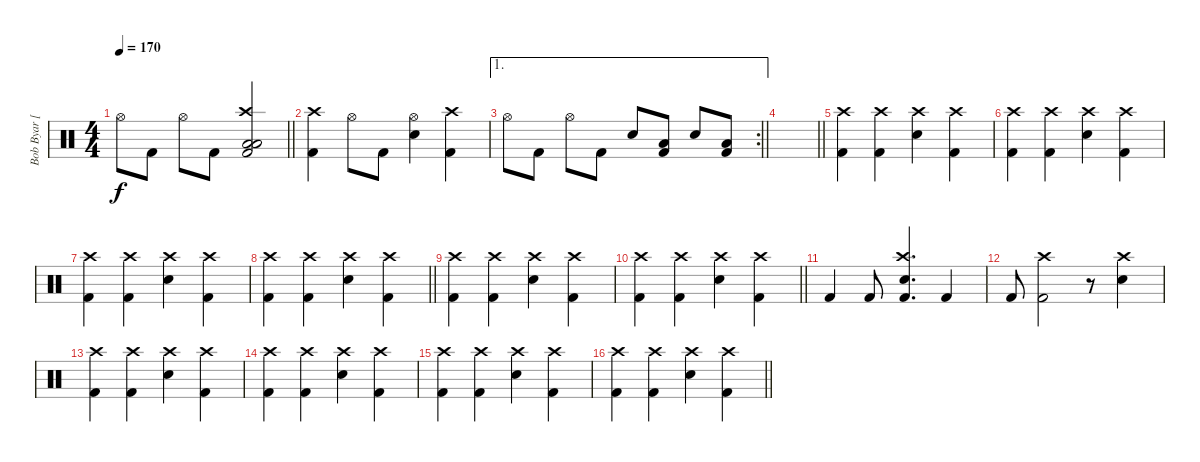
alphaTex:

\track ("Bob Byar [Drums]" "Bob Byar [") {instrument percussion}
\staff {score}
\articulation defaults
\ts (4 4)
\tempo 170
\clef neutral
\barLineRight lightlight
\ks c "Hi-Hat (open)".8{dy f} "Kick (hit) 2".8 "Hi-Hat (open)".8 "Kick (hit) 2".8
("Crash high (hit)" "Low Tom (hit)" "Low Tom (hit)" "Kick (hit) 2").2 |
("Crash high (hit)" "Kick (hit) 2").4 "Hi-Hat (open)".8 "Kick (hit) 2".8 ("Hi-Hat (open)" "Electric Snare (hit)").4 ("Crash high (hit)" "Kick (hit) 2").4 |
\ae 1
\rc 2
\barLineRight lightlight "Hi-Hat (open)".8 "Kick (hit) 2".8 "Hi-Hat (open)".8 "Kick (hit) 2".8 "Electric Snare (hit)".8
("Low Tom (hit)" "Kick (hit) 2").8 "Electric Snare (hit)".8 ("Low Tom (hit)" "Kick (hit) 2").8 |
\barLineRight lightlight
|
("Crash high (hit)" "Kick (hit) 2").4 ("Crash high (hit)" "Kick (hit) 2").4 ("Crash high (hit)" "Electric Snare (hit)").4 ("Crash high (hit)" "Kick (hit) 2").4 |
("Crash high (hit)" "Kick (hit) 2").4 ("Crash high (hit)" "Kick (hit) 2").4 ("Crash high (hit)" "Electric Snare (hit)").4 ("Crash high (hit)" "Kick (hit) 2").4 |
("Crash high (hit)" "Kick (hit) 2").4 ("Crash high (hit)" "Kick (hit) 2").4 ("Crash high (hit)" "Electric Snare (hit)").4 ("Crash high (hit)" "Kick (hit) 2").4 |
\barLineRight lightlight
("Crash high (hit)" "Kick (hit) 2").4 ("Crash high (hit)" "Kick (hit) 2").4 ("Crash high (hit)" "Electric Snare (hit)").4 ("Crash high (hit)" "Kick (hit) 2").4 |
("Crash high (hit)" "Kick (hit) 2").4 ("Crash high (hit)" "Kick (hit) 2").4 ("Crash high (hit)" "Electric Snare (hit)").4 ("Crash high (hit)" "Kick (hit) 2").4 |
\barLineRight lightlight
("Crash high (hit)" "Kick (hit) 2").4 ("Crash high (hit)" "Kick (hit) 2").4 ("Crash high (hit)" "Electric Snare (hit)").4 ("Crash high (hit)" "Kick (hit) 2").4 |
"Kick (hit) 2".4 "Kick (hit) 2".8 ("Crash high (hit)" "Electric Snare (hit)" "Kick (hit) 2").4{d} "Kick (hit) 2".4 |
"Kick (hit) 2".8 ("Crash high (hit)" "Kick (hit) 2").2 r.8 ("Crash high (hit)" "Electric Snare (hit)").4 |
("Crash high (hit)" "Kick (hit) 2").4 ("Crash high (hit)" "Kick (hit) 2").4 ("Crash high (hit)" "Electric Snare (hit)").4 ("Crash high (hit)" "Kick (hit) 2").4 |
("Crash high (hit)" "Kick (hit) 2").4 ("Crash high (hit)" "Kick (hit) 2").4 ("Crash high (hit)" "Electric Snare (hit)").4 ("Crash high (hit)" "Kick (hit) 2").4 |
("Crash high (hit)" "Kick (hit) 2").4 ("Crash high (hit)" "Kick (hit) 2").4 ("Crash high (hit)" "Electric Snare (hit)").4 ("Crash high (hit)" "Kick (hit) 2").4 |
\barLineRight lightlight
("Crash high (hit)" "Kick (hit) 2").4 ("Crash high (hit)" "Kick (hit) 2").4 ("Crash high (hit)" "Electric Snare (hit)").4 ("Crash high (hit)" "Kick (hit) 2").4
